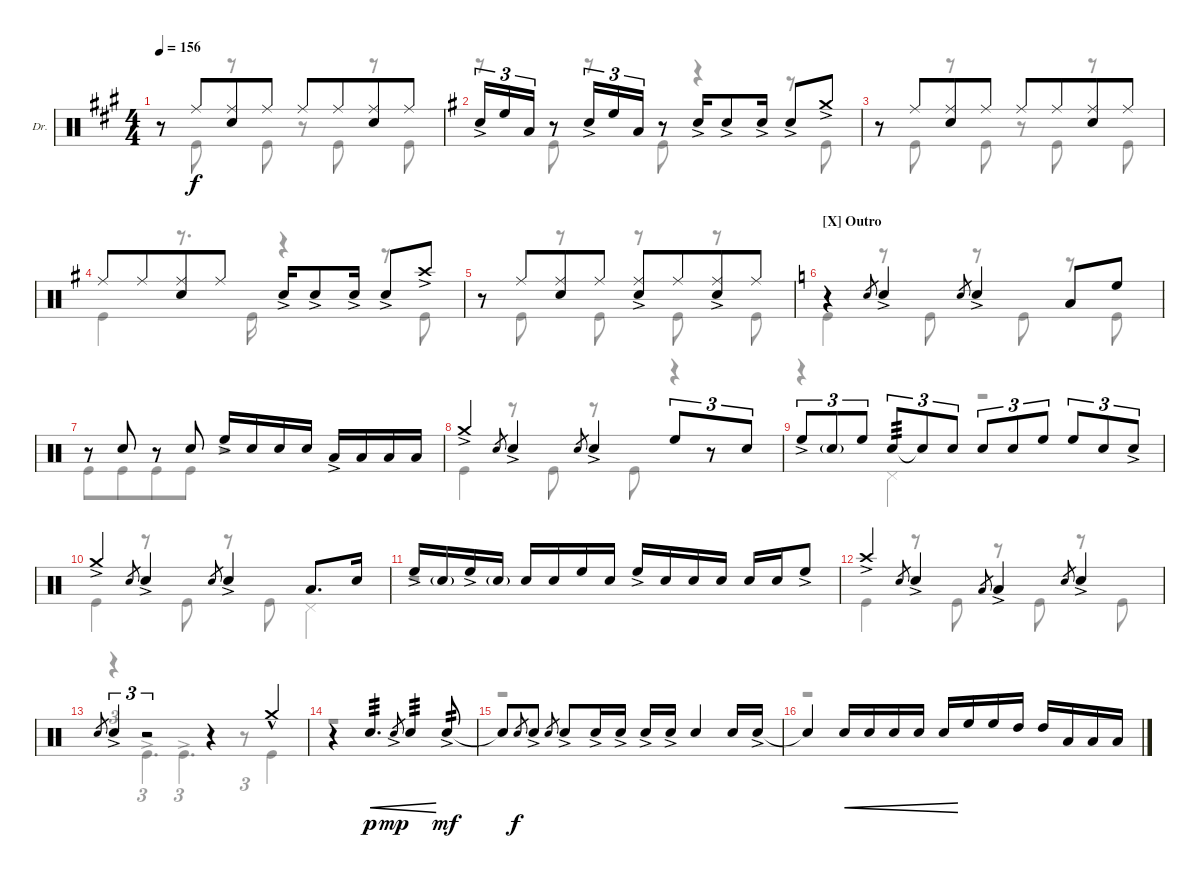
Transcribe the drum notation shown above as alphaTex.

\defaultSystemsLayout 4
\bracketExtendMode groupsimilarinstruments
\firstSystemTrackNameOrientation horizontal
\otherSystemsTrackNameOrientation horizontal
\track ("Drums" "Dr.") {instrument percussion}
\staff {score}
\articulation defaults
\voice
\ts (4 4)
\tempo 156
\clef neutral
\scale
0.333959
\ks a
r.8{dy f} "Ride (middle)".8{beam merge} ("Ride (middle)" "Snare (hit) 2").8 "Ride (middle)".8 "Ride (middle)".8 "Ride (middle)".8{beam merge} ("Ride (middle)" "Snare (hit) 2").8 "Ride (middle)".8 |
\scale
0.419019
\ks g "Snare (hit) 2"{ac}.16{tu (3 2)} "High Floor Tom (hit)".16{tu (3 2)} "Low Tom (hit)".16{tu (3 2)}
r.8 "Snare (hit) 2"{ac}.16{tu (3 2)} "High Floor Tom (hit)".16{tu (3 2)} "Low Tom (hit)".16{tu (3 2)} r.8 "Snare (hit) 2"{ac}.16 "Snare (hit) 2"{ac}.8 "Snare (hit) 2"{ac}.16 "Snare (hit) 2"{ac}.8 "Crash medium (hit)"{ac}.8 |
\scale
0.273898 r.8 "Ride (middle)".8{beam merge} ("Ride (middle)" "Snare (hit) 2").8 "Ride (middle)".8 "Ride (middle)".8 "Ride (middle)".8{beam merge} ("Ride (middle)" "Snare (hit) 2").8 "Ride (middle)".8 |
\scale
0.306977 "Ride (middle)".8 "Ride (middle)".8{beam merge} ("Ride (middle)" "Snare (hit) 2").8 "Ride (middle)".8 "Snare (hit) 2"{ac}.16 "Snare (hit) 2"{ac}.8 "Snare (hit) 2"{ac}.16 "Snare (hit) 2"{ac}.8 "Crash high (hit)"{ac}.8 |
r.8 "Ride (middle)".8{beam merge} ("Ride (middle)" "Snare (hit) 2").8 "Ride (middle)".8 ("Ride (middle)" "Snare (hit) 2"{ac}).8 "Ride (middle)".8{beam merge} ("Ride (middle)" "Snare (hit) 2"{ac}).8 "Ride (middle)".8 |
\section ("X" "Outro")
\ks c
r.4 "Snare (hit) 2".8{gr} "Snare (hit) 2"{ac}.4 "Snare (hit) 2".8{gr} "Snare (hit) 2"{ac}.4 "Low Tom (hit)".8 "High Floor Tom (hit)".8 |
r.8 "Snare (hit) 2".8 r.8 "Snare (hit) 2".8 "High Floor Tom (hit)"{ac}.16 "Snare (hit) 2".16 "Snare (hit) 2".16 "Snare (hit) 2".16 "Low Tom (hit)"{ac}.16 "Low Tom (hit)".16 "Low Tom (hit)".16 "Low Tom (hit)".16 |
"Crash medium (hit)"{ac}.4 "Snare (hit) 2".8{gr} "Snare (hit) 2"{ac}.4 "Snare (hit) 2".8{gr} "Snare (hit) 2"{ac}.4 "High Floor Tom (hit)".8{tu (3 2)} r.8{tu (3 2)} "Snare (hit) 2".8{tu (3 2)} |
"High Floor Tom (hit)"{ac}.8{tu (3 2)} "Snare (hit) 2"{g}.8{tu (3 2)} "High Floor Tom (hit)".8{tu (3 2)} "Snare (hit) 2".8{tu (3 2) tp 3} "Snare (hit) 2"{t}.8{tu (3 2)} "Snare (hit) 2".8{tu (3 2)} "Snare (hit) 2".8{tu (3 2)} "Snare (hit) 2".8{tu (3 2)} "High Floor Tom (hit)".8{tu (3 2)} "High Floor Tom (hit)".8{tu (3 2)} "Snare (hit) 2".8{tu (3 2)} "Snare (hit) 2"{ac}.8{tu (3 2)} |
"Crash medium (hit)"{ac}.4 "Snare (hit) 2".8{gr} "Snare (hit) 2"{ac}.4 "Snare (hit) 2".8{gr} "Snare (hit) 2"{ac}.4 "Low Tom (hit)".8{d} "Snare (hit) 2".16 |
"High Floor Tom (hit)"{ac}.16 "Snare (hit) 2"{g}.16 "High Floor Tom (hit)"{ac}.16 "Snare (hit) 2"{g}.16 "Snare (hit) 2".16 "Snare (hit) 2".16 "High Floor Tom (hit)".16 "Snare (hit) 2".16 "High Floor Tom (hit)"{ac}.16 "Snare (hit) 2".16 "Snare (hit) 2".16 "Snare (hit) 2".16 "Snare (hit) 2".16 "Snare (hit) 2".16 "High Floor Tom (hit)"{ac}.8 |
"Crash high (hit)"{ac}.4 "Snare (hit) 2".8{gr} "Snare (hit) 2"{ac}.4 "Low Tom (hit)".8{gr} "Low Tom (hit)"{ac}.4 "Snare (hit) 2".8{gr} "Snare (hit) 2"{ac}.4 |
"Snare (hit) 2".8{gr} "Snare (hit) 2"{ac}.4{tu (3 2)} r.2{tu (3 2)} r.4 "Crash medium (hit)"{hac}.4 |
r.4 "Snare (hit) 2".4{d tp 3 cre dy p} "Snare (hit) 2"{ac}.8{gr cre dy mp} "Snare (hit) 2".4{tp 3 cre} "Snare (hit) 2"{ac}.8{tp 2 dy mf} |
"Snare (hit) 2"{t}.8 "Snare (hit) 2".8{gr dy f} "Snare (hit) 2"{ac}.8 "Snare (hit) 2".8{gr} "Snare (hit) 2"{ac}.8 "Snare (hit) 2"{ac}.16 "Snare (hit) 2"{ac}.16 "Snare (hit) 2"{ac}.16 "Snare (hit) 2"{ac}.16 "Snare (hit) 2".4 "Snare (hit) 2".16 "Snare (hit) 2"{ac}.16 |
"Snare (hit) 2"{t}.4 "Snare (hit) 2".16{cre} "Snare (hit) 2".16{cre} "Snare (hit) 2".16{cre} "Snare (hit) 2".16{cre} "Snare (hit) 2".16{cre} "High Floor Tom (hit)".16 "High Floor Tom (hit)".16 "High Tom (hit)".16 "High Tom (hit)".16 "Low Tom (hit)".16 "Low Tom (hit)".16 "Low Tom (hit)".16
\voice
\clef neutral
\ottava regular
\simile none
\scale
0.333959
\ks a
r.8{dy f} "Kick (hit)".8 r.8 "Kick (hit)".8 r.8 "Kick (hit)".8 r.8 "Kick (hit)".8 |
\scale
0.419019
\ks g
r.8 "Kick (hit)".8 r.8 "Kick (hit)".8 r.4 r.8 "Kick (hit)".8 |
\scale
0.273898 r.8 "Kick (hit)".8 r.8 "Kick (hit)".8 r.8 "Kick (hit)".8 r.8 "Kick (hit)".8 |
\scale
0.306977 "Kick (hit)".4 r.8{d} "Kick (hit)".16 r.4 r.8 "Kick (hit)".8 |
r.8 "Kick (hit)".8 r.8 "Kick (hit)".8 r.8 "Kick (hit)".8 r.8 "Kick (hit)".8 |
\ks c "Kick (hit)".4
r.8 "Kick (hit)".8 r.8 "Kick (hit)".8 r.8 "Kick (hit)".8 |
"Kick (hit)".8 "Kick (hit)".8{beam merge} "Kick (hit)".8 "Kick (hit)".8 r.2 |
"Kick (hit)".4 r.8 "Kick (hit)".8 r.8 "Kick (hit)".8 r.4 |
r.4 "Pedal Hi-Hat (hit)".4 r.2 |
"Kick (hit)".4 r.8 "Kick (hit)".8 r.8 "Kick (hit)".8 "Pedal Hi-Hat (hit)".4 |
r.1 |
"Kick (hit)".4 r.8 "Kick (hit)".8 r.8 "Kick (hit)".8 r.8 "Kick (hit)".8 |
r.4{tu (3 2)} "Kick (hit)"{ac}.4{d tu (3 2)} "Kick (hit)"{ac}.4{d tu (3 2)} r.8{tu (3 2)} "Kick (hit)".4 |
r.1 |
r.1 |
r.1
